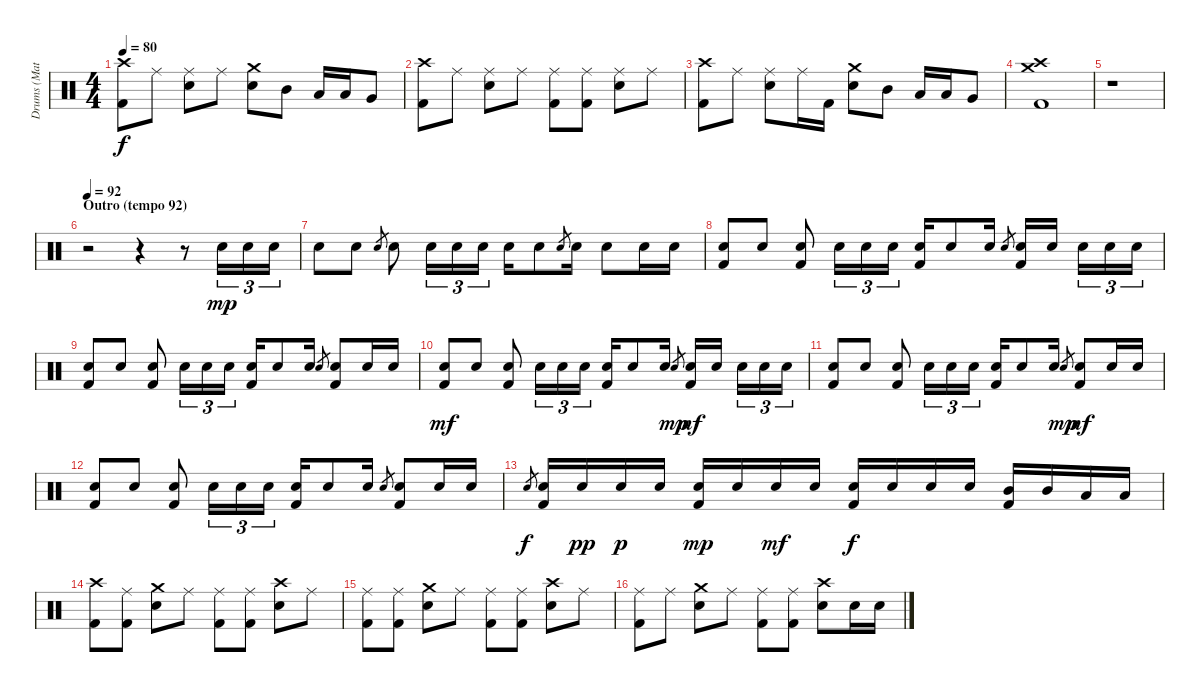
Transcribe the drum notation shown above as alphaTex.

\track ("Drums (Matt)" "Drums (Mat") {instrument percussion}
\staff {score}
\articulation defaults
\ts (4 4)
\tempo 80
\clef neutral
\ks c
("Crash high (hit)" "Kick (hit) 2").8{dy f} "Ride (middle)".8 ("Ride (middle)" "Snare (hit) 2").8 "Ride (middle)".8 ("Crash medium (hit)" "Snare (hit) 2").8 "Mid Tom (hit)".8 "Low Tom (hit)".16 "Low Tom (hit)".16 "Very Low Tom (hit)".8 |
("Crash high (hit)" "Kick (hit) 2").8 "Ride (middle)".8 ("Ride (middle)" "Snare (hit) 2").8 "Ride (middle)".8 ("Ride (middle)" "Kick (hit) 2").8 ("Ride (middle)" "Kick (hit) 2").8 ("Ride (middle)" "Snare (hit) 2").8 "Ride (middle)".8 |
("Crash high (hit)" "Kick (hit) 2").8 "Ride (middle)".8 ("Ride (middle)" "Snare (hit) 2").8 "Ride (middle)".16 "Kick (hit) 2".16 ("Crash medium (hit)" "Snare (hit) 2").8 "Mid Tom (hit)".8 "Low Tom (hit)".16 "Low Tom (hit)".16 "Very Low Tom (hit)".8 |
("Crash high (hit)" "Crash medium (hit)" "Kick (hit) 2").1 |
r.1 |
\section ("" "Outro (tempo 92)")
\tempo 92
r.2 r.4 r.8 "Snare (hit) 2".16{tu (3 2) dy mp} "Snare (hit) 2".16{tu (3 2)} "Snare (hit) 2".16{tu (3 2)} |
"Snare (hit) 2".8 "Snare (hit) 2".8 "Snare (hit) 2".8{gr} "Snare (hit) 2".8 "Snare (hit) 2".16{tu (3 2)} "Snare (hit) 2".16{tu (3 2)} "Snare (hit) 2".16{tu (3 2)} "Snare (hit) 2".16 "Snare (hit) 2".8 "Snare (hit) 2".8{gr} "Snare (hit) 2".16 "Snare (hit) 2".8 "Snare (hit) 2".16 "Snare (hit) 2".16 |
("Snare (hit) 2" "Kick (hit) 2").8 "Snare (hit) 2".8 ("Snare (hit) 2" "Kick (hit) 2").8 "Snare (hit) 2".16{tu (3 2)} "Snare (hit) 2".16{tu (3 2)} "Snare (hit) 2".16{tu (3 2)} ("Snare (hit) 2" "Kick (hit) 2").16 "Snare (hit) 2".8 "Snare (hit) 2".16 "Snare (hit) 2".8{gr} ("Snare (hit) 2" "Kick (hit) 2").16 "Snare (hit) 2".16 "Snare (hit) 2".16{tu (3 2)} "Snare (hit) 2".16{tu (3 2)} "Snare (hit) 2".16{tu (3 2)} |
("Snare (hit) 2" "Kick (hit) 2").8 "Snare (hit) 2".8 ("Snare (hit) 2" "Kick (hit) 2").8 "Snare (hit) 2".16{tu (3 2)} "Snare (hit) 2".16{tu (3 2)} "Snare (hit) 2".16{tu (3 2)} ("Snare (hit) 2" "Kick (hit) 2").16 "Snare (hit) 2".8 "Snare (hit) 2".16 "Snare (hit) 2".8{gr} ("Snare (hit) 2" "Kick (hit) 2").8 "Snare (hit) 2".16 "Snare (hit) 2".16 |
("Snare (hit) 2" "Kick (hit) 2").8{dy mf} "Snare (hit) 2".8 ("Snare (hit) 2" "Kick (hit) 2").8 "Snare (hit) 2".16{tu (3 2)} "Snare (hit) 2".16{tu (3 2)} "Snare (hit) 2".16{tu (3 2)} ("Snare (hit) 2" "Kick (hit) 2").16 "Snare (hit) 2".8 "Snare (hit) 2".16 "Snare (hit) 2".8{gr dy mp} ("Snare (hit) 2" "Kick (hit) 2").16{dy mf} "Snare (hit) 2".16 "Snare (hit) 2".16{tu (3 2)} "Snare (hit) 2".16{tu (3 2)} "Snare (hit) 2".16{tu (3 2)} |
("Snare (hit) 2" "Kick (hit) 2").8 "Snare (hit) 2".8 ("Snare (hit) 2" "Kick (hit) 2").8 "Snare (hit) 2".16{tu (3 2)} "Snare (hit) 2".16{tu (3 2)} "Snare (hit) 2".16{tu (3 2)} ("Snare (hit) 2" "Kick (hit) 2").16 "Snare (hit) 2".8 "Snare (hit) 2".16 "Snare (hit) 2".8{gr dy mp} ("Snare (hit) 2" "Kick (hit) 2").8{dy mf} "Snare (hit) 2".16 "Snare (hit) 2".16 |
("Snare (hit) 2" "Kick (hit) 2").8 "Snare (hit) 2".8 ("Snare (hit) 2" "Kick (hit) 2").8 "Snare (hit) 2".16{tu (3 2)} "Snare (hit) 2".16{tu (3 2)} "Snare (hit) 2".16{tu (3 2)} ("Snare (hit) 2" "Kick (hit) 2").16 "Snare (hit) 2".8 "Snare (hit) 2".16 "Snare (hit) 2".8{gr} ("Snare (hit) 2" "Kick (hit) 2").8 "Snare (hit) 2".16 "Snare (hit) 2".16 |
"Snare (hit) 2".8{gr dy f} ("Snare (hit) 2" "Kick (hit) 2").16 "Snare (hit) 2".16{dy pp} "Snare (hit) 2".16{dy p} "Snare (hit) 2".16 ("Snare (hit) 2" "Kick (hit) 2").16{dy mp} "Snare (hit) 2".16 "Snare (hit) 2".16{dy mf} "Snare (hit) 2".16 ("Snare (hit) 2" "Kick (hit) 2").16{dy f} "Snare (hit) 2".16 "Snare (hit) 2".16 "Snare (hit) 2".16 ("Mid Tom (hit)" "Kick (hit) 2").16 "Mid Tom (hit)".16 "Low Tom (hit)".16 "Low Tom (hit)".16 |
("Crash high (hit)" "Kick (hit) 2").8 ("Ride (middle)" "Kick (hit) 2").8 ("Crash medium (hit)" "Snare (hit) 2").8 "Ride (middle)".8 ("Ride (middle)" "Kick (hit) 2").8 ("Ride (middle)" "Kick (hit) 2").8 ("Crash high (hit)" "Snare (hit) 2").8 "Ride (middle)".8 |
("Ride (middle)" "Kick (hit) 2").8 ("Ride (middle)" "Kick (hit) 2").8 ("Crash medium (hit)" "Snare (hit) 2").8 "Ride (middle)".8 ("Ride (middle)" "Kick (hit) 2").8 ("Ride (middle)" "Kick (hit) 2").8 ("Crash high (hit)" "Snare (hit) 2").8 "Ride (middle)".8 |
("Ride (middle)" "Kick (hit) 2").8 "Ride (middle)".8 ("Crash medium (hit)" "Snare (hit) 2").8 "Ride (middle)".8 ("Ride (middle)" "Kick (hit) 2").8 ("Ride (middle)" "Kick (hit) 2").8 ("Crash high (hit)" "Snare (hit) 2").8 "Snare (hit) 2".16 "Snare (hit) 2".16
